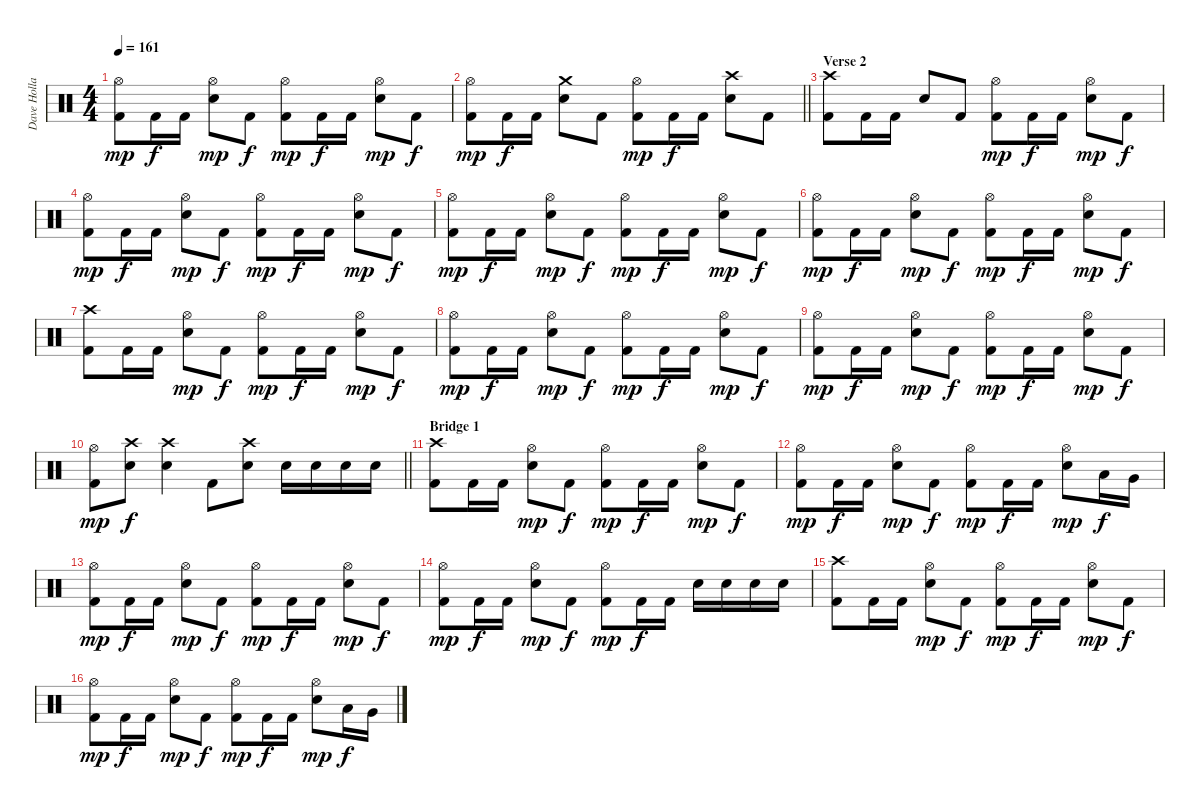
\track ("Dave Holland" "Dave Holla") {instrument percussion}
\staff {score}
\articulation defaults
\ts (4 4)
\tempo 161
\clef neutral
\ks c
("Kick (hit) 2" "Hi-Hat (open)").8{dy mp} "Kick (hit) 2".16{dy f} "Kick (hit) 2".16 ("Hi-Hat (open)" "Snare (hit) 2").8{dy mp} "Kick (hit) 2".8{dy f} ("Kick (hit) 2" "Hi-Hat (open)").8{dy mp} "Kick (hit) 2".16{dy f} "Kick (hit) 2".16 ("Hi-Hat (open)" "Snare (hit) 2").8{dy mp} "Kick (hit) 2".8{dy f} |
\barLineRight lightlight
("Kick (hit) 2" "Hi-Hat (open)").8{dy mp} "Kick (hit) 2".16{dy f} "Kick (hit) 2".16 ("Crash medium (hit)" "Snare (hit) 2").8 "Kick (hit) 2".8 ("Kick (hit) 2" "Hi-Hat (open)").8{dy mp} "Kick (hit) 2".16{dy f} "Kick (hit) 2".16 ("Crash high (hit)" "Snare (hit) 2").8 "Kick (hit) 2".8 |
\section ("" "Verse 2")
("Kick (hit) 2" "Crash high (hit)").8 "Kick (hit) 2".16 "Kick (hit) 2".16 "Snare (hit) 2".8 "Kick (hit) 2".8 ("Kick (hit) 2" "Hi-Hat (open)").8{dy mp} "Kick (hit) 2".16{dy f} "Kick (hit) 2".16 ("Hi-Hat (open)" "Snare (hit) 2").8{dy mp} "Kick (hit) 2".8{dy f} |
("Kick (hit) 2" "Hi-Hat (open)").8{dy mp} "Kick (hit) 2".16{dy f} "Kick (hit) 2".16 ("Hi-Hat (open)" "Snare (hit) 2").8{dy mp} "Kick (hit) 2".8{dy f} ("Kick (hit) 2" "Hi-Hat (open)").8{dy mp} "Kick (hit) 2".16{dy f} "Kick (hit) 2".16 ("Hi-Hat (open)" "Snare (hit) 2").8{dy mp} "Kick (hit) 2".8{dy f} |
("Kick (hit) 2" "Hi-Hat (open)").8{dy mp} "Kick (hit) 2".16{dy f} "Kick (hit) 2".16 ("Hi-Hat (open)" "Snare (hit) 2").8{dy mp} "Kick (hit) 2".8{dy f} ("Kick (hit) 2" "Hi-Hat (open)").8{dy mp} "Kick (hit) 2".16{dy f} "Kick (hit) 2".16 ("Hi-Hat (open)" "Snare (hit) 2").8{dy mp} "Kick (hit) 2".8{dy f} |
("Kick (hit) 2" "Hi-Hat (open)").8{dy mp} "Kick (hit) 2".16{dy f} "Kick (hit) 2".16 ("Hi-Hat (open)" "Snare (hit) 2").8{dy mp} "Kick (hit) 2".8{dy f} ("Kick (hit) 2" "Hi-Hat (open)").8{dy mp} "Kick (hit) 2".16{dy f} "Kick (hit) 2".16 ("Hi-Hat (open)" "Snare (hit) 2").8{dy mp} "Kick (hit) 2".8{dy f} |
("Kick (hit) 2" "Crash high (hit)").8 "Kick (hit) 2".16 "Kick (hit) 2".16 ("Hi-Hat (open)" "Snare (hit) 2").8{dy mp} "Kick (hit) 2".8{dy f} ("Kick (hit) 2" "Hi-Hat (open)").8{dy mp} "Kick (hit) 2".16{dy f} "Kick (hit) 2".16 ("Hi-Hat (open)" "Snare (hit) 2").8{dy mp} "Kick (hit) 2".8{dy f} |
("Kick (hit) 2" "Hi-Hat (open)").8{dy mp} "Kick (hit) 2".16{dy f} "Kick (hit) 2".16 ("Hi-Hat (open)" "Snare (hit) 2").8{dy mp} "Kick (hit) 2".8{dy f} ("Kick (hit) 2" "Hi-Hat (open)").8{dy mp} "Kick (hit) 2".16{dy f} "Kick (hit) 2".16 ("Hi-Hat (open)" "Snare (hit) 2").8{dy mp} "Kick (hit) 2".8{dy f} |
("Kick (hit) 2" "Hi-Hat (open)").8{dy mp} "Kick (hit) 2".16{dy f} "Kick (hit) 2".16 ("Hi-Hat (open)" "Snare (hit) 2").8{dy mp} "Kick (hit) 2".8{dy f} ("Kick (hit) 2" "Hi-Hat (open)").8{dy mp} "Kick (hit) 2".16{dy f} "Kick (hit) 2".16 ("Hi-Hat (open)" "Snare (hit) 2").8{dy mp} "Kick (hit) 2".8{dy f} |
\barLineRight lightlight
("Kick (hit) 2" "Hi-Hat (open)").8{dy mp} ("Crash high (hit)" "Snare (hit) 2").8{dy f} ("Crash high (hit)" "Snare (hit) 2").4 "Kick (hit) 2".8 ("Crash high (hit)" "Snare (hit) 2").8 "Snare (hit) 2".16 "Snare (hit) 2".16 "Snare (hit) 2".16 "Snare (hit) 2".16 |
\section ("" "Bridge 1")
("Kick (hit) 2" "Crash high (hit)").8 "Kick (hit) 2".16 "Kick (hit) 2".16 ("Hi-Hat (open)" "Snare (hit) 2").8{dy mp} "Kick (hit) 2".8{dy f} ("Kick (hit) 2" "Hi-Hat (open)").8{dy mp} "Kick (hit) 2".16{dy f} "Kick (hit) 2".16 ("Hi-Hat (open)" "Snare (hit) 2").8{dy mp} "Kick (hit) 2".8{dy f} |
("Kick (hit) 2" "Hi-Hat (open)").8{dy mp} "Kick (hit) 2".16{dy f} "Kick (hit) 2".16 ("Hi-Hat (open)" "Snare (hit) 2").8{dy mp} "Kick (hit) 2".8{dy f} ("Kick (hit) 2" "Hi-Hat (open)").8{dy mp} "Kick (hit) 2".16{dy f} "Kick (hit) 2".16 ("Hi-Hat (open)" "Snare (hit) 2").8{dy mp} "Low Tom (hit)".16{dy f} "Very Low Tom (hit)".16 |
("Kick (hit) 2" "Hi-Hat (open)").8{dy mp} "Kick (hit) 2".16{dy f} "Kick (hit) 2".16 ("Hi-Hat (open)" "Snare (hit) 2").8{dy mp} "Kick (hit) 2".8{dy f} ("Kick (hit) 2" "Hi-Hat (open)").8{dy mp} "Kick (hit) 2".16{dy f} "Kick (hit) 2".16 ("Hi-Hat (open)" "Snare (hit) 2").8{dy mp} "Kick (hit) 2".8{dy f} |
("Kick (hit) 2" "Hi-Hat (open)").8{dy mp} "Kick (hit) 2".16{dy f} "Kick (hit) 2".16 ("Hi-Hat (open)" "Snare (hit) 2").8{dy mp} "Kick (hit) 2".8{dy f} ("Kick (hit) 2" "Hi-Hat (open)").8{dy mp} "Kick (hit) 2".16{dy f} "Kick (hit) 2".16 "Snare (hit) 2".16 "Snare (hit) 2".16 "Snare (hit) 2".16 "Snare (hit) 2".16 |
("Kick (hit) 2" "Crash high (hit)").8 "Kick (hit) 2".16 "Kick (hit) 2".16 ("Hi-Hat (open)" "Snare (hit) 2").8{dy mp} "Kick (hit) 2".8{dy f} ("Kick (hit) 2" "Hi-Hat (open)").8{dy mp} "Kick (hit) 2".16{dy f} "Kick (hit) 2".16 ("Hi-Hat (open)" "Snare (hit) 2").8{dy mp} "Kick (hit) 2".8{dy f} |
("Kick (hit) 2" "Hi-Hat (open)").8{dy mp} "Kick (hit) 2".16{dy f} "Kick (hit) 2".16 ("Hi-Hat (open)" "Snare (hit) 2").8{dy mp} "Kick (hit) 2".8{dy f} ("Kick (hit) 2" "Hi-Hat (open)").8{dy mp} "Kick (hit) 2".16{dy f} "Kick (hit) 2".16 ("Hi-Hat (open)" "Snare (hit) 2").8{dy mp} "Low Tom (hit)".16{dy f} "Very Low Tom (hit)".16
